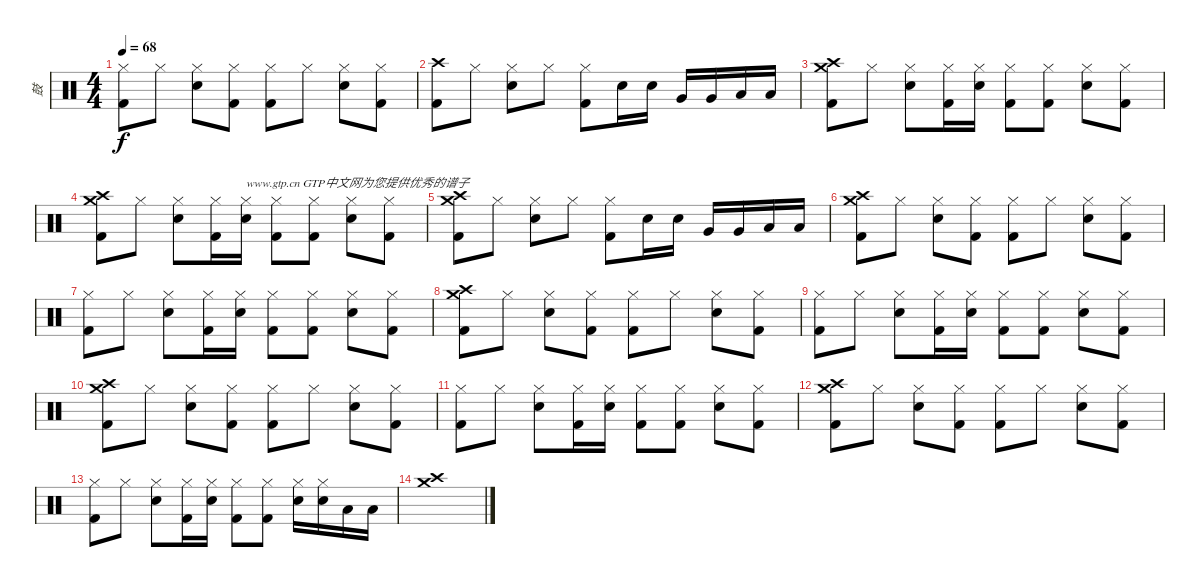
\track ("鼓" "鼓") {instrument percussion}
\staff {score}
\articulation defaults
\ts (4 4)
\tempo 68
\clef neutral
\ks c
("Kick (hit) 2" "Hi-Hat (closed)").8{dy f} "Hi-Hat (closed)".8 ("Snare (hit) 2" "Hi-Hat (closed)").8 ("Kick (hit) 2" "Hi-Hat (closed)").8 ("Kick (hit) 2" "Hi-Hat (closed)").8 "Hi-Hat (closed)".8 ("Snare (hit) 2" "Hi-Hat (closed)").8 ("Kick (hit) 2" "Hi-Hat (closed)").8 |
("Kick (hit) 2" "Crash high (hit)").8 "Hi-Hat (closed)".8 ("Snare (hit) 2" "Hi-Hat (closed)").8 "Hi-Hat (closed)".8 ("Kick (hit) 2" "Hi-Hat (closed)").8 "Electric Snare (hit)".16 "Electric Snare (hit)".16 "Very Low Tom (hit)".16 "Very Low Tom (hit)".16 "Low Tom (hit)".16 "Low Tom (hit)".16 |
("Kick (hit) 2" "Crash high (hit)" "Crash medium (hit)").8 "Hi-Hat (closed)".8 ("Snare (hit) 2" "Hi-Hat (closed)").8 ("Kick (hit) 2" "Hi-Hat (closed)").16 ("Snare (hit) 2" "Hi-Hat (closed)").16 ("Kick (hit) 2" "Hi-Hat (closed)").8 ("Kick (hit) 2" "Hi-Hat (closed)").8 ("Snare (hit) 2" "Hi-Hat (closed)").8 ("Kick (hit) 2" "Hi-Hat (closed)").8 |
("Kick (hit) 2" "Crash high (hit)" "Crash medium (hit)").8 "Hi-Hat (closed)".8 ("Snare (hit) 2" "Hi-Hat (closed)").8 ("Kick (hit) 2" "Hi-Hat (closed)").16 ("Snare (hit) 2" "Hi-Hat (closed)").16{txt "www.gtp.cn GTP中文网为您提供优秀的谱子"} ("Kick (hit) 2" "Hi-Hat (closed)").8 ("Kick (hit) 2" "Hi-Hat (closed)").8 ("Snare (hit) 2" "Hi-Hat (closed)").8 ("Kick (hit) 2" "Hi-Hat (closed)").8 |
("Kick (hit) 2" "Crash medium (hit)" "Crash high (hit)").8 "Hi-Hat (closed)".8 ("Snare (hit) 2" "Hi-Hat (closed)").8 "Hi-Hat (closed)".8 ("Kick (hit) 2" "Hi-Hat (closed)").8 "Electric Snare (hit)".16 "Electric Snare (hit)".16 "Very Low Tom (hit)".16 "Very Low Tom (hit)".16 "Low Tom (hit)".16 "Low Tom (hit)".16 |
("Kick (hit) 2" "Crash high (hit)" "Crash medium (hit)").8 "Hi-Hat (closed)".8 ("Snare (hit) 2" "Hi-Hat (closed)").8 ("Kick (hit) 2" "Hi-Hat (closed)").8 ("Kick (hit) 2" "Hi-Hat (closed)").8 "Hi-Hat (closed)".8 ("Snare (hit) 2" "Hi-Hat (closed)").8 ("Kick (hit) 2" "Hi-Hat (closed)").8 |
("Kick (hit) 2" "Hi-Hat (closed)").8 "Hi-Hat (closed)".8 ("Snare (hit) 2" "Hi-Hat (closed)").8 ("Kick (hit) 2" "Hi-Hat (closed)").16 ("Snare (hit) 2" "Hi-Hat (closed)").16 ("Kick (hit) 2" "Hi-Hat (closed)").8 ("Kick (hit) 2" "Hi-Hat (closed)").8 ("Snare (hit) 2" "Hi-Hat (closed)").8 ("Kick (hit) 2" "Hi-Hat (closed)").8 |
("Kick (hit) 2" "Crash high (hit)" "Crash medium (hit)").8 "Hi-Hat (closed)".8 ("Snare (hit) 2" "Hi-Hat (closed)").8 ("Kick (hit) 2" "Hi-Hat (closed)").8 ("Kick (hit) 2" "Hi-Hat (closed)").8 "Hi-Hat (closed)".8 ("Snare (hit) 2" "Hi-Hat (closed)").8 ("Kick (hit) 2" "Hi-Hat (closed)").8 |
("Kick (hit) 2" "Hi-Hat (closed)").8 "Hi-Hat (closed)".8 ("Snare (hit) 2" "Hi-Hat (closed)").8 ("Kick (hit) 2" "Hi-Hat (closed)").16 ("Snare (hit) 2" "Hi-Hat (closed)").16 ("Kick (hit) 2" "Hi-Hat (closed)").8 ("Kick (hit) 2" "Hi-Hat (closed)").8 ("Snare (hit) 2" "Hi-Hat (closed)").8 ("Kick (hit) 2" "Hi-Hat (closed)").8 |
("Kick (hit) 2" "Crash high (hit)" "Crash medium (hit)").8 "Hi-Hat (closed)".8 ("Snare (hit) 2" "Hi-Hat (closed)").8 ("Kick (hit) 2" "Hi-Hat (closed)").8 ("Kick (hit) 2" "Hi-Hat (closed)").8 "Hi-Hat (closed)".8 ("Snare (hit) 2" "Hi-Hat (closed)").8 ("Kick (hit) 2" "Hi-Hat (closed)").8 |
("Kick (hit) 2" "Hi-Hat (closed)").8 "Hi-Hat (closed)".8 ("Snare (hit) 2" "Hi-Hat (closed)").8 ("Kick (hit) 2" "Hi-Hat (closed)").16 ("Snare (hit) 2" "Hi-Hat (closed)").16 ("Kick (hit) 2" "Hi-Hat (closed)").8 ("Kick (hit) 2" "Hi-Hat (closed)").8 ("Snare (hit) 2" "Hi-Hat (closed)").8 ("Kick (hit) 2" "Hi-Hat (closed)").8 |
("Kick (hit) 2" "Crash high (hit)" "Crash medium (hit)").8 "Hi-Hat (closed)".8 ("Snare (hit) 2" "Hi-Hat (closed)").8 ("Kick (hit) 2" "Hi-Hat (closed)").8 ("Kick (hit) 2" "Hi-Hat (closed)").8 "Hi-Hat (closed)".8 ("Snare (hit) 2" "Hi-Hat (closed)").8 ("Kick (hit) 2" "Hi-Hat (closed)").8 |
("Kick (hit) 2" "Hi-Hat (closed)").8 "Hi-Hat (closed)".8 ("Snare (hit) 2" "Hi-Hat (closed)").8 ("Kick (hit) 2" "Hi-Hat (closed)").16 ("Snare (hit) 2" "Hi-Hat (closed)").16 ("Kick (hit) 2" "Hi-Hat (closed)").8 ("Kick (hit) 2" "Hi-Hat (closed)").8 ("Electric Snare (hit)" "Hi-Hat (closed)").16 ("Electric Snare (hit)" "Hi-Hat (closed)").16 "Low Tom (hit)".16 "Low Tom (hit)".16 |
("Crash high (hit)" "Crash medium (hit)").1
